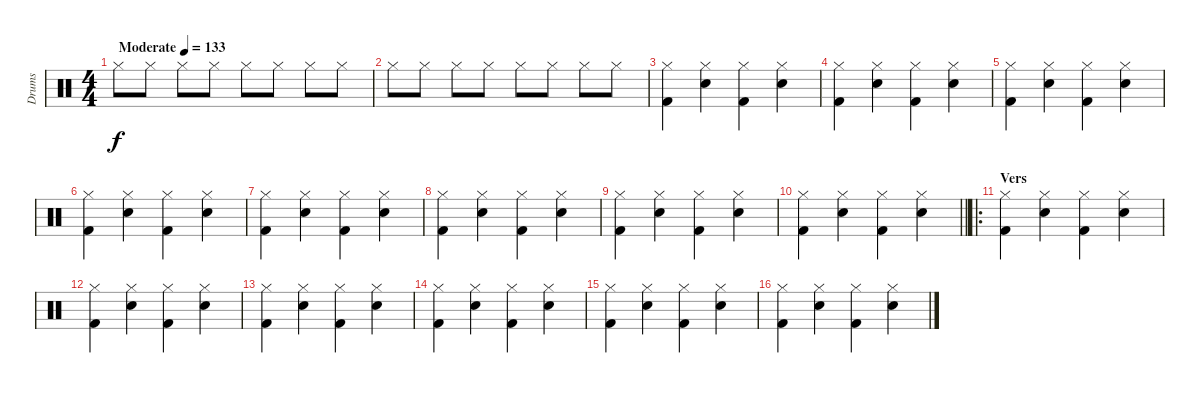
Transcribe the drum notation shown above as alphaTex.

\track ("Drums" "Drums") {instrument percussion}
\staff {score}
\articulation defaults
\ts (4 4)
\tempo (133 "Moderate")
\clef neutral
\ks c "Hi-Hat (closed)".8{dy f} "Hi-Hat (closed)".8 "Hi-Hat (closed)".8 "Hi-Hat (closed)".8 "Hi-Hat (closed)".8 "Hi-Hat (closed)".8 "Hi-Hat (closed)".8 "Hi-Hat (closed)".8
|
"Hi-Hat (closed)".8 "Hi-Hat (closed)".8 "Hi-Hat (closed)".8 "Hi-Hat (closed)".8 "Hi-Hat (closed)".8 "Hi-Hat (closed)".8 "Hi-Hat (closed)".8 "Hi-Hat (closed)".8 |
("Hi-Hat (closed)" "Kick (hit) 2").4 ("Hi-Hat (closed)" "Snare (hit) 2").4 ("Hi-Hat (closed)" "Kick (hit) 2").4 ("Hi-Hat (closed)" "Snare (hit) 2").4 |
("Hi-Hat (closed)" "Kick (hit) 2").4 ("Hi-Hat (closed)" "Snare (hit) 2").4 ("Hi-Hat (closed)" "Kick (hit) 2").4 ("Hi-Hat (closed)" "Snare (hit) 2").4 |
("Hi-Hat (closed)" "Kick (hit) 2").4 ("Hi-Hat (closed)" "Snare (hit) 2").4 ("Hi-Hat (closed)" "Kick (hit) 2").4 ("Hi-Hat (closed)" "Snare (hit) 2").4 |
("Hi-Hat (closed)" "Kick (hit) 2").4 ("Hi-Hat (closed)" "Snare (hit) 2").4 ("Hi-Hat (closed)" "Kick (hit) 2").4 ("Hi-Hat (closed)" "Snare (hit) 2").4 |
("Hi-Hat (closed)" "Kick (hit) 2").4 ("Hi-Hat (closed)" "Snare (hit) 2").4 ("Hi-Hat (closed)" "Kick (hit) 2").4 ("Hi-Hat (closed)" "Snare (hit) 2").4 |
("Hi-Hat (closed)" "Kick (hit) 2").4 ("Hi-Hat (closed)" "Snare (hit) 2").4 ("Hi-Hat (closed)" "Kick (hit) 2").4 ("Hi-Hat (closed)" "Snare (hit) 2").4 |
("Hi-Hat (closed)" "Kick (hit) 2").4 ("Hi-Hat (closed)" "Snare (hit) 2").4 ("Hi-Hat (closed)" "Kick (hit) 2").4 ("Hi-Hat (closed)" "Snare (hit) 2").4 |
\barLineRight lightlight
("Hi-Hat (closed)" "Kick (hit) 2").4 ("Hi-Hat (closed)" "Snare (hit) 2").4 ("Hi-Hat (closed)" "Kick (hit) 2").4 ("Hi-Hat (closed)" "Snare (hit) 2").4 |
\ro
\section ("" "Vers")
("Hi-Hat (closed)" "Kick (hit) 2").4 ("Hi-Hat (closed)" "Snare (hit) 2").4 ("Hi-Hat (closed)" "Kick (hit) 2").4 ("Hi-Hat (closed)" "Snare (hit) 2").4 |
("Hi-Hat (closed)" "Kick (hit) 2").4 ("Hi-Hat (closed)" "Snare (hit) 2").4 ("Hi-Hat (closed)" "Kick (hit) 2").4 ("Hi-Hat (closed)" "Snare (hit) 2").4 |
("Hi-Hat (closed)" "Kick (hit) 2").4 ("Hi-Hat (closed)" "Snare (hit) 2").4 ("Hi-Hat (closed)" "Kick (hit) 2").4 ("Hi-Hat (closed)" "Snare (hit) 2").4 |
("Hi-Hat (closed)" "Kick (hit) 2").4 ("Hi-Hat (closed)" "Snare (hit) 2").4 ("Hi-Hat (closed)" "Kick (hit) 2").4 ("Hi-Hat (closed)" "Snare (hit) 2").4 |
("Hi-Hat (closed)" "Kick (hit) 2").4 ("Hi-Hat (closed)" "Snare (hit) 2").4 ("Hi-Hat (closed)" "Kick (hit) 2").4 ("Hi-Hat (closed)" "Snare (hit) 2").4 |
("Hi-Hat (closed)" "Kick (hit) 2").4 ("Hi-Hat (closed)" "Snare (hit) 2").4 ("Hi-Hat (closed)" "Kick (hit) 2").4 ("Hi-Hat (closed)" "Snare (hit) 2").4
